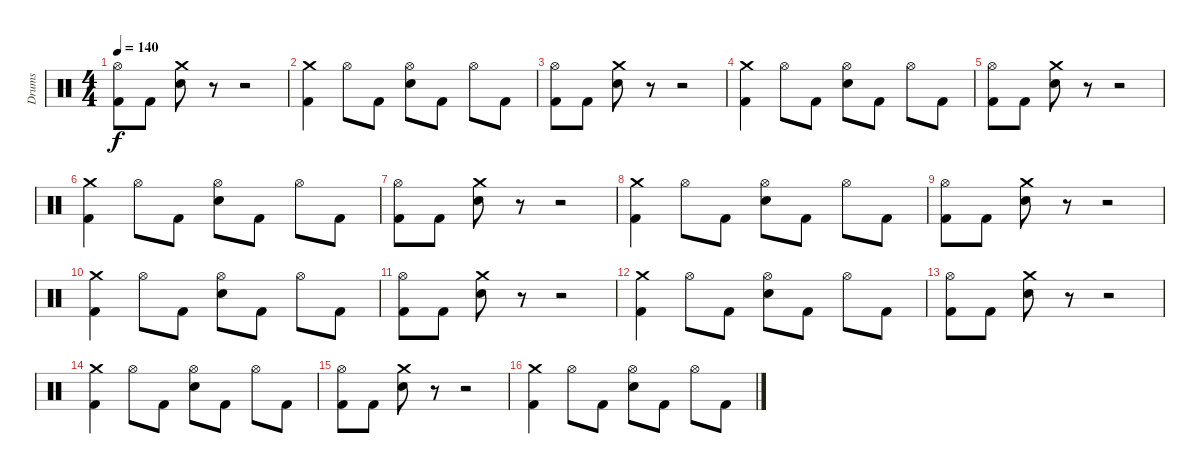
\track ("Drums" "Drums") {instrument percussion}
\staff {score}
\articulation defaults
\ts (4 4)
\tempo 140
\clef neutral
\ks c
("Hi-Hat (open)" "Kick (hit) 2").8{dy f} "Kick (hit) 2".8 ("Crash medium (hit)" "Electric Snare (hit)").8 r.8 r.2 |
("Crash medium (hit)" "Kick (hit) 2").4 "Hi-Hat (open)".8 "Kick (hit) 2".8 ("Hi-Hat (open)" "Electric Snare (hit)").8 "Kick (hit) 2".8 "Hi-Hat (open)".8 "Kick (hit) 2".8 |
("Hi-Hat (open)" "Kick (hit) 2").8 "Kick (hit) 2".8 ("Crash medium (hit)" "Electric Snare (hit)").8 r.8 r.2 |
("Crash medium (hit)" "Kick (hit) 2").4 "Hi-Hat (open)".8 "Kick (hit) 2".8 ("Hi-Hat (open)" "Electric Snare (hit)").8 "Kick (hit) 2".8 "Hi-Hat (open)".8 "Kick (hit) 2".8 |
("Hi-Hat (open)" "Kick (hit) 2").8 "Kick (hit) 2".8 ("Crash medium (hit)" "Electric Snare (hit)").8 r.8 r.2 |
("Crash medium (hit)" "Kick (hit) 2").4 "Hi-Hat (open)".8 "Kick (hit) 2".8 ("Hi-Hat (open)" "Electric Snare (hit)").8 "Kick (hit) 2".8 "Hi-Hat (open)".8 "Kick (hit) 2".8 |
("Hi-Hat (open)" "Kick (hit) 2").8 "Kick (hit) 2".8 ("Crash medium (hit)" "Electric Snare (hit)").8 r.8 r.2 |
("Crash medium (hit)" "Kick (hit) 2").4 "Hi-Hat (open)".8 "Kick (hit) 2".8 ("Hi-Hat (open)" "Electric Snare (hit)").8 "Kick (hit) 2".8 "Hi-Hat (open)".8 "Kick (hit) 2".8 |
("Hi-Hat (open)" "Kick (hit) 2").8 "Kick (hit) 2".8 ("Crash medium (hit)" "Electric Snare (hit)").8 r.8 r.2 |
("Crash medium (hit)" "Kick (hit) 2").4 "Hi-Hat (open)".8 "Kick (hit) 2".8 ("Hi-Hat (open)" "Electric Snare (hit)").8 "Kick (hit) 2".8 "Hi-Hat (open)".8 "Kick (hit) 2".8 |
("Hi-Hat (open)" "Kick (hit) 2").8 "Kick (hit) 2".8 ("Crash medium (hit)" "Electric Snare (hit)").8 r.8 r.2 |
("Crash medium (hit)" "Kick (hit) 2").4 "Hi-Hat (open)".8 "Kick (hit) 2".8 ("Hi-Hat (open)" "Electric Snare (hit)").8 "Kick (hit) 2".8 "Hi-Hat (open)".8 "Kick (hit) 2".8 |
("Hi-Hat (open)" "Kick (hit) 2").8 "Kick (hit) 2".8 ("Crash medium (hit)" "Electric Snare (hit)").8 r.8 r.2 |
("Crash medium (hit)" "Kick (hit) 2").4 "Hi-Hat (open)".8 "Kick (hit) 2".8 ("Hi-Hat (open)" "Electric Snare (hit)").8 "Kick (hit) 2".8 "Hi-Hat (open)".8 "Kick (hit) 2".8 |
("Hi-Hat (open)" "Kick (hit) 2").8 "Kick (hit) 2".8 ("Crash medium (hit)" "Electric Snare (hit)").8 r.8 r.2 |
("Crash medium (hit)" "Kick (hit) 2").4 "Hi-Hat (open)".8 "Kick (hit) 2".8 ("Hi-Hat (open)" "Electric Snare (hit)").8 "Kick (hit) 2".8 "Hi-Hat (open)".8 "Kick (hit) 2".8
